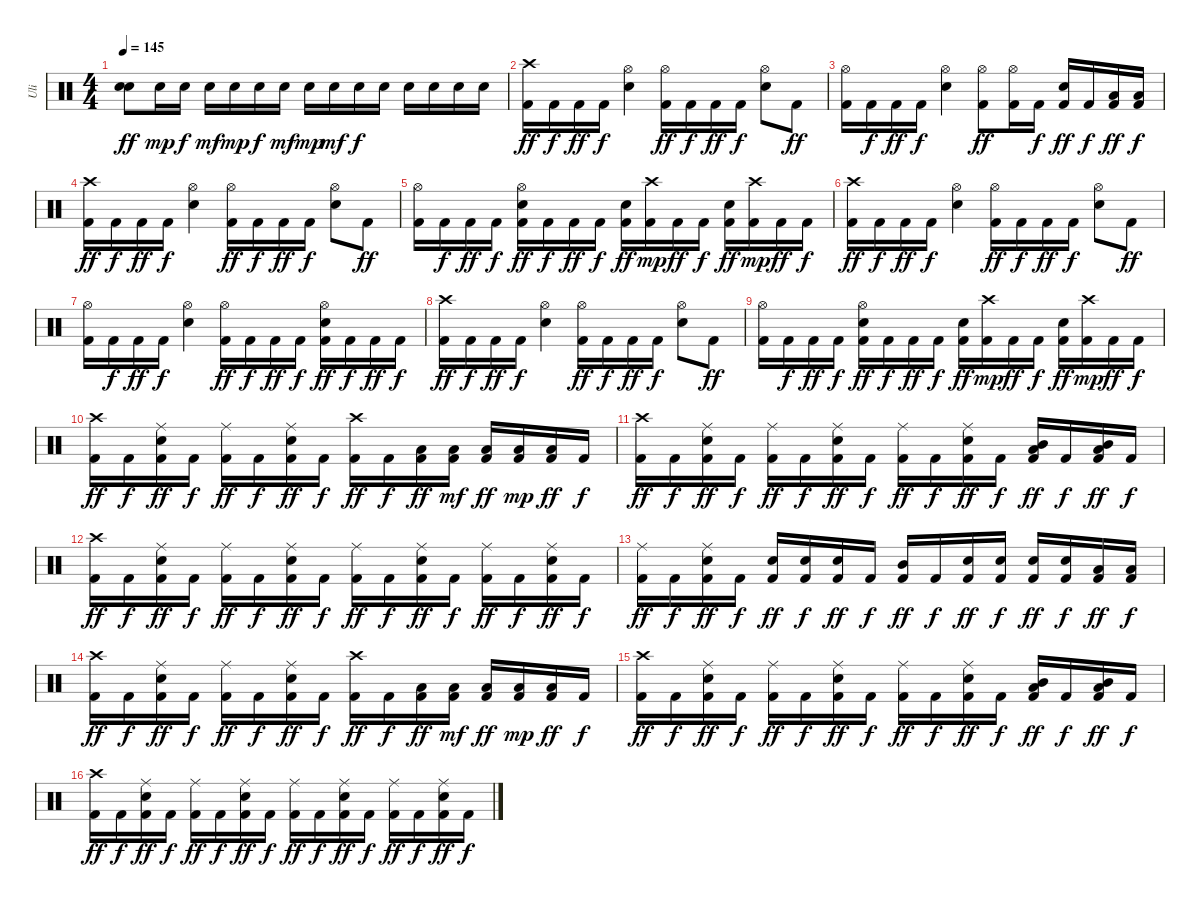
\track ("Uli" "Uli") {instrument percussion}
\staff {score}
\articulation defaults
\ts (4 4)
\tempo 145
\clef neutral
\ks c
("Electric Snare (hit)" "Electric Snare (hit)").8{dy ff} "Electric Snare (hit)".16{dy mp} "Electric Snare (hit)".16{dy f} "Electric Snare (hit)".16{dy mf} "Electric Snare (hit)".16{dy mp} "Electric Snare (hit)".16{dy f} "Electric Snare (hit)".16{dy mf} "Electric Snare (hit)".16{dy mp} "Electric Snare (hit)".16{dy mf} "Electric Snare (hit)".16{dy f} "Electric Snare (hit)".16 "Electric Snare (hit)".16 "Electric Snare (hit)".16 "Electric Snare (hit)".16 "Electric Snare (hit)".16 |
("Crash high (hit)" "Kick (hit) 2").16{dy ff} "Kick (hit) 2".16{dy f} "Kick (hit) 2".16{dy ff} "Kick (hit) 2".16{dy f} ("Hi-Hat (open)" "Electric Snare (hit)").4 ("Hi-Hat (open)" "Kick (hit) 2").16{dy ff} "Kick (hit) 2".16{dy f} "Kick (hit) 2".16{dy ff} "Kick (hit) 2".16{dy f} ("Hi-Hat (open)" "Electric Snare (hit)").8 "Kick (hit) 2".8{dy ff} |
("Hi-Hat (open)" "Kick (hit) 2").16 "Kick (hit) 2".16{dy f} "Kick (hit) 2".16{dy ff} "Kick (hit) 2".16{dy f} ("Hi-Hat (open)" "Electric Snare (hit)").4 ("Hi-Hat (open)" "Kick (hit) 2").8{dy ff} ("Hi-Hat (open)" "Kick (hit) 2").16 "Kick (hit) 2".16{dy f} ("Electric Snare (hit)" "Kick (hit) 2").16{dy ff} "Kick (hit) 2".16{dy f} ("Low Tom (hit)" "Kick (hit) 2").16{dy ff} ("Low Tom (hit)" "Kick (hit) 2").16{dy f} |
("Crash high (hit)" "Kick (hit) 2").16{dy ff} "Kick (hit) 2".16{dy f} "Kick (hit) 2".16{dy ff} "Kick (hit) 2".16{dy f} ("Hi-Hat (open)" "Electric Snare (hit)").4 ("Hi-Hat (open)" "Kick (hit) 2").16{dy ff} "Kick (hit) 2".16{dy f} "Kick (hit) 2".16{dy ff} "Kick (hit) 2".16{dy f} ("Hi-Hat (open)" "Electric Snare (hit)").8 "Kick (hit) 2".8{dy ff} |
("Hi-Hat (open)" "Kick (hit) 2").16 "Kick (hit) 2".16{dy f} "Kick (hit) 2".16{dy ff} "Kick (hit) 2".16{dy f} ("Hi-Hat (open)" "Electric Snare (hit)" "Kick (hit) 2").16{dy ff} "Kick (hit) 2".16{dy f} "Kick (hit) 2".16{dy ff} "Kick (hit) 2".16{dy f} ("Electric Snare (hit)" "Kick (hit) 2").16{dy ff} ("Crash high (hit)" "Kick (hit) 2").16{dy mp} "Kick (hit) 2".16{dy ff} "Kick (hit) 2".16{dy f} ("Electric Snare (hit)" "Kick (hit) 2").16{dy ff} ("Crash high (hit)" "Kick (hit) 2").16{dy mp} "Kick (hit) 2".16{dy ff} "Kick (hit) 2".16{dy f} |
("Crash high (hit)" "Kick (hit) 2").16{dy ff} "Kick (hit) 2".16{dy f} "Kick (hit) 2".16{dy ff} "Kick (hit) 2".16{dy f} ("Hi-Hat (open)" "Electric Snare (hit)").4 ("Hi-Hat (open)" "Kick (hit) 2").16{dy ff} "Kick (hit) 2".16{dy f} "Kick (hit) 2".16{dy ff} "Kick (hit) 2".16{dy f} ("Hi-Hat (open)" "Electric Snare (hit)").8 "Kick (hit) 2".8{dy ff} |
("Hi-Hat (open)" "Kick (hit) 2").16 "Kick (hit) 2".16{dy f} "Kick (hit) 2".16{dy ff} "Kick (hit) 2".16{dy f} ("Hi-Hat (open)" "Electric Snare (hit)").4 ("Hi-Hat (open)" "Kick (hit) 2").16{dy ff} "Kick (hit) 2".16{dy f} "Kick (hit) 2".16{dy ff} "Kick (hit) 2".16{dy f} ("Hi-Hat (open)" "Electric Snare (hit)" "Kick (hit) 2").16{dy ff} "Kick (hit) 2".16{dy f} "Kick (hit) 2".16{dy ff} "Kick (hit) 2".16{dy f} |
("Crash high (hit)" "Kick (hit) 2").16{dy ff} "Kick (hit) 2".16{dy f} "Kick (hit) 2".16{dy ff} "Kick (hit) 2".16{dy f} ("Hi-Hat (open)" "Electric Snare (hit)").4 ("Hi-Hat (open)" "Kick (hit) 2").16{dy ff} "Kick (hit) 2".16{dy f} "Kick (hit) 2".16{dy ff} "Kick (hit) 2".16{dy f} ("Hi-Hat (open)" "Electric Snare (hit)").8 "Kick (hit) 2".8{dy ff} |
("Hi-Hat (open)" "Kick (hit) 2").16 "Kick (hit) 2".16{dy f} "Kick (hit) 2".16{dy ff} "Kick (hit) 2".16{dy f} ("Hi-Hat (open)" "Electric Snare (hit)" "Kick (hit) 2").16{dy ff} "Kick (hit) 2".16{dy f} "Kick (hit) 2".16{dy ff} "Kick (hit) 2".16{dy f} ("Electric Snare (hit)" "Kick (hit) 2").16{dy ff} ("Crash high (hit)" "Kick (hit) 2").16{dy mp} "Kick (hit) 2".16{dy ff} "Kick (hit) 2".16{dy f} ("Electric Snare (hit)" "Kick (hit) 2").16{dy ff} ("Crash high (hit)" "Kick (hit) 2").16{dy mp} "Kick (hit) 2".16{dy ff} "Kick (hit) 2".16{dy f} |
("Crash high (hit)" "Kick (hit) 2").16{dy ff} "Kick (hit) 2".16{dy f} ("Ride (middle)" "Electric Snare (hit)" "Kick (hit) 2").16{dy ff} "Kick (hit) 2".16{dy f} ("Ride (middle)" "Kick (hit) 2").16{dy ff} "Kick (hit) 2".16{dy f} ("Ride (middle)" "Electric Snare (hit)" "Kick (hit) 2").16{dy ff} "Kick (hit) 2".16{dy f} ("Crash high (hit)" "Kick (hit) 2").16{dy ff} "Kick (hit) 2".16{dy f} ("Low Tom (hit)" "Kick (hit) 2").16{dy ff} ("Low Tom (hit)" "Kick (hit) 2").16{dy mf} ("Low Tom (hit)" "Kick (hit) 2").16{dy ff} ("Low Tom (hit)" "Kick (hit) 2").16{dy mp} ("Low Tom (hit)" "Kick (hit) 2").16{dy ff} "Kick (hit) 2".16{dy f} |
("Crash high (hit)" "Kick (hit) 2").16{dy ff} "Kick (hit) 2".16{dy f} ("Ride (middle)" "Electric Snare (hit)" "Kick (hit) 2").16{dy ff} "Kick (hit) 2".16{dy f} ("Ride (middle)" "Kick (hit) 2").16{dy ff} "Kick (hit) 2".16{dy f} ("Ride (middle)" "Electric Snare (hit)" "Kick (hit) 2").16{dy ff} "Kick (hit) 2".16{dy f} ("Ride (middle)" "Kick (hit) 2").16{dy ff} "Kick (hit) 2".16{dy f} ("Ride (middle)" "Electric Snare (hit)" "Kick (hit) 2").16{dy ff} "Kick (hit) 2".16{dy f} ("Low Tom (hit)" "Kick (hit) 2" "Mid Tom (hit)").16{dy ff} "Kick (hit) 2".16{dy f} ("Low Tom (hit)" "Kick (hit) 2" "Mid Tom (hit)").16{dy ff} "Kick (hit) 2".16{dy f} |
("Crash high (hit)" "Kick (hit) 2").16{dy ff} "Kick (hit) 2".16{dy f} ("Ride (middle)" "Electric Snare (hit)" "Kick (hit) 2").16{dy ff} "Kick (hit) 2".16{dy f} ("Ride (middle)" "Kick (hit) 2").16{dy ff} "Kick (hit) 2".16{dy f} ("Ride (middle)" "Electric Snare (hit)" "Kick (hit) 2").16{dy ff} "Kick (hit) 2".16{dy f} ("Ride (middle)" "Kick (hit) 2").16{dy ff} "Kick (hit) 2".16{dy f} ("Ride (middle)" "Electric Snare (hit)" "Kick (hit) 2").16{dy ff} "Kick (hit) 2".16{dy f} ("Ride (middle)" "Kick (hit) 2").16{dy ff} "Kick (hit) 2".16{dy f} ("Ride (middle)" "Electric Snare (hit)" "Kick (hit) 2").16{dy ff} "Kick (hit) 2".16{dy f} |
("Ride (middle)" "Kick (hit) 2").16{dy ff} "Kick (hit) 2".16{dy f} ("Ride (middle)" "Electric Snare (hit)" "Kick (hit) 2").16{dy ff} "Kick (hit) 2".16{dy f} ("Electric Snare (hit)" "Kick (hit) 2").16{dy ff} ("Electric Snare (hit)" "Kick (hit) 2").16{dy f} ("Electric Snare (hit)" "Kick (hit) 2").16{dy ff} "Kick (hit) 2".16{dy f} ("Mid Tom (hit)" "Kick (hit) 2").16{dy ff} "Kick (hit) 2".16{dy f} ("Electric Snare (hit)" "Kick (hit) 2").16{dy ff} ("Electric Snare (hit)" "Kick (hit) 2").16{dy f} ("Electric Snare (hit)" "Kick (hit) 2").16{dy ff} ("Electric Snare (hit)" "Kick (hit) 2").16{dy f} ("Low Tom (hit)" "Kick (hit) 2").16{dy ff} ("Low Tom (hit)" "Kick (hit) 2").16{dy f} |
("Crash high (hit)" "Kick (hit) 2").16{dy ff} "Kick (hit) 2".16{dy f} ("Ride (middle)" "Electric Snare (hit)" "Kick (hit) 2").16{dy ff} "Kick (hit) 2".16{dy f} ("Ride (middle)" "Kick (hit) 2").16{dy ff} "Kick (hit) 2".16{dy f} ("Ride (middle)" "Electric Snare (hit)" "Kick (hit) 2").16{dy ff} "Kick (hit) 2".16{dy f} ("Crash high (hit)" "Kick (hit) 2").16{dy ff} "Kick (hit) 2".16{dy f} ("Low Tom (hit)" "Kick (hit) 2").16{dy ff} ("Low Tom (hit)" "Kick (hit) 2").16{dy mf} ("Low Tom (hit)" "Kick (hit) 2").16{dy ff} ("Low Tom (hit)" "Kick (hit) 2").16{dy mp} ("Low Tom (hit)" "Kick (hit) 2").16{dy ff} "Kick (hit) 2".16{dy f} |
("Crash high (hit)" "Kick (hit) 2").16{dy ff} "Kick (hit) 2".16{dy f} ("Ride (middle)" "Electric Snare (hit)" "Kick (hit) 2").16{dy ff} "Kick (hit) 2".16{dy f} ("Ride (middle)" "Kick (hit) 2").16{dy ff} "Kick (hit) 2".16{dy f} ("Ride (middle)" "Electric Snare (hit)" "Kick (hit) 2").16{dy ff} "Kick (hit) 2".16{dy f} ("Ride (middle)" "Kick (hit) 2").16{dy ff} "Kick (hit) 2".16{dy f} ("Ride (middle)" "Electric Snare (hit)" "Kick (hit) 2").16{dy ff} "Kick (hit) 2".16{dy f} ("Low Tom (hit)" "Kick (hit) 2" "Mid Tom (hit)").16{dy ff} "Kick (hit) 2".16{dy f} ("Low Tom (hit)" "Kick (hit) 2" "Mid Tom (hit)").16{dy ff} "Kick (hit) 2".16{dy f} |
("Crash high (hit)" "Kick (hit) 2").16{dy ff} "Kick (hit) 2".16{dy f} ("Ride (middle)" "Electric Snare (hit)" "Kick (hit) 2").16{dy ff} "Kick (hit) 2".16{dy f} ("Ride (middle)" "Kick (hit) 2").16{dy ff} "Kick (hit) 2".16{dy f} ("Ride (middle)" "Electric Snare (hit)" "Kick (hit) 2").16{dy ff} "Kick (hit) 2".16{dy f} ("Ride (middle)" "Kick (hit) 2").16{dy ff} "Kick (hit) 2".16{dy f} ("Ride (middle)" "Electric Snare (hit)" "Kick (hit) 2").16{dy ff} "Kick (hit) 2".16{dy f} ("Ride (middle)" "Kick (hit) 2").16{dy ff} "Kick (hit) 2".16{dy f} ("Ride (middle)" "Electric Snare (hit)" "Kick (hit) 2").16{dy ff} "Kick (hit) 2".16{dy f}
